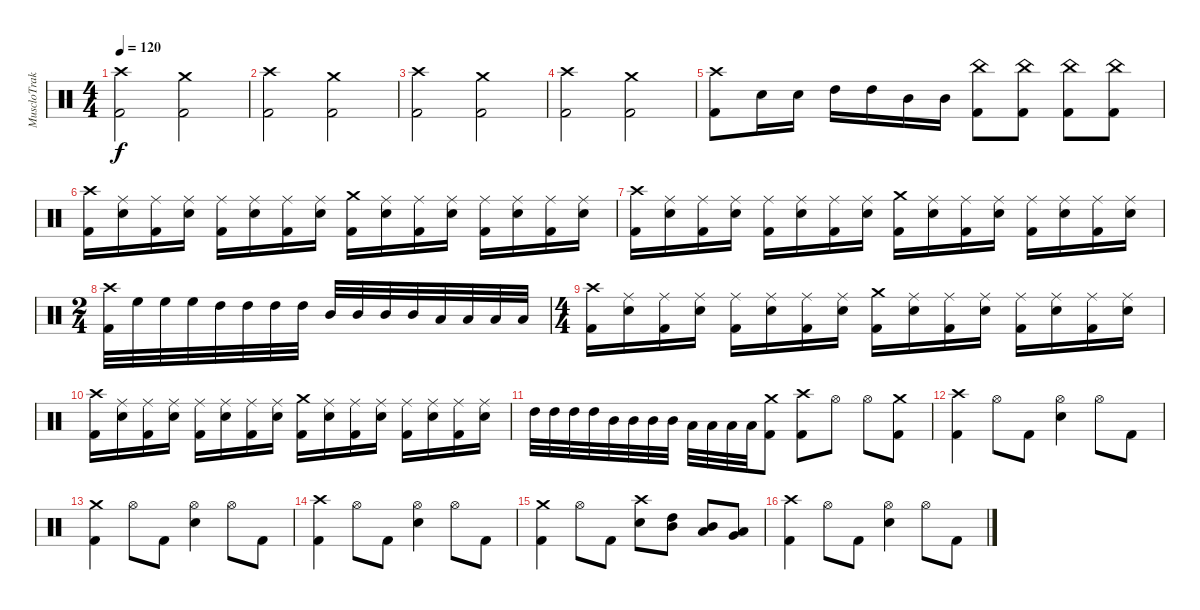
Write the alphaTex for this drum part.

\track ("MuscloTraktor" "MuscloTrak") {instrument percussion}
\staff {score}
\articulation defaults
\ts (4 4)
\tempo 120
\clef neutral
\ks c
("Kick (hit) 2" "Crash high (hit)").2{dy f} ("Kick (hit) 2" "Crash medium (hit)").2 |
("Kick (hit) 2" "Crash high (hit)").2 ("Kick (hit) 2" "Crash medium (hit)").2 |
("Kick (hit) 2" "Crash high (hit)").2 ("Kick (hit) 2" "Crash medium (hit)").2 |
("Kick (hit) 2" "Crash high (hit)").2 ("Kick (hit) 2" "Crash medium (hit)").2 |
("Kick (hit) 2" "Crash high (hit)").8 "Electric Snare (hit)".16 "Electric Snare (hit)".16 "High Tom (hit)".16 "High Tom (hit)".16 "Mid Tom (hit)".16 "Mid Tom (hit)".16 ("Kick (hit) 2" "China (hit)").8 ("Kick (hit) 2" "China (hit)").8 ("Kick (hit) 2" "China (hit)").8 ("Kick (hit) 2" "China (hit)").8 |
("Kick (hit) 2" "Crash high (hit)").16 ("Electric Snare (hit)" "Ride (middle)").16 ("Kick (hit) 2" "Ride (middle)").16 ("Electric Snare (hit)" "Ride (middle)").16 ("Kick (hit) 2" "Ride (middle)").16 ("Electric Snare (hit)" "Ride (middle)").16 ("Kick (hit) 2" "Ride (middle)").16 ("Electric Snare (hit)" "Ride (middle)").16 ("Kick (hit) 2" "Crash medium (hit)").16 ("Electric Snare (hit)" "Ride (middle)").16 ("Kick (hit) 2" "Ride (middle)").16 ("Electric Snare (hit)" "Ride (middle)").16 ("Kick (hit) 2" "Ride (middle)").16 ("Electric Snare (hit)" "Ride (middle)").16 ("Kick (hit) 2" "Ride (middle)").16 ("Electric Snare (hit)" "Ride (middle)").16 |
("Kick (hit) 2" "Crash high (hit)").16 ("Electric Snare (hit)" "Ride (middle)").16 ("Kick (hit) 2" "Ride (middle)").16 ("Electric Snare (hit)" "Ride (middle)").16 ("Kick (hit) 2" "Ride (middle)").16 ("Electric Snare (hit)" "Ride (middle)").16 ("Kick (hit) 2" "Ride (middle)").16 ("Electric Snare (hit)" "Ride (middle)").16 ("Kick (hit) 2" "Crash medium (hit)").16 ("Electric Snare (hit)" "Ride (middle)").16 ("Kick (hit) 2" "Ride (middle)").16 ("Electric Snare (hit)" "Ride (middle)").16 ("Kick (hit) 2" "Ride (middle)").16 ("Electric Snare (hit)" "Ride (middle)").16 ("Kick (hit) 2" "Ride (middle)").16 ("Electric Snare (hit)" "Ride (middle)").16 |
\ts (2 4)
("Kick (hit) 2" "Crash high (hit)").32 "High Floor Tom (hit)".32 "High Floor Tom (hit)".32 "High Floor Tom (hit)".32 "High Tom (hit)".32 "High Tom (hit)".32 "High Tom (hit)".32 "High Tom (hit)".32 "Mid Tom (hit)".32 "Mid Tom (hit)".32 "Mid Tom (hit)".32 "Mid Tom (hit)".32 "Low Tom (hit)".32 "Low Tom (hit)".32 "Low Tom (hit)".32 "Low Tom (hit)".32 |
\ts (4 4)
("Kick (hit) 2" "Crash high (hit)").16 ("Electric Snare (hit)" "Ride (middle)").16 ("Kick (hit) 2" "Ride (middle)").16 ("Electric Snare (hit)" "Ride (middle)").16 ("Kick (hit) 2" "Ride (middle)").16 ("Electric Snare (hit)" "Ride (middle)").16 ("Kick (hit) 2" "Ride (middle)").16 ("Electric Snare (hit)" "Ride (middle)").16 ("Kick (hit) 2" "Crash medium (hit)").16 ("Electric Snare (hit)" "Ride (middle)").16 ("Kick (hit) 2" "Ride (middle)").16 ("Electric Snare (hit)" "Ride (middle)").16 ("Kick (hit) 2" "Ride (middle)").16 ("Electric Snare (hit)" "Ride (middle)").16 ("Kick (hit) 2" "Ride (middle)").16 ("Electric Snare (hit)" "Ride (middle)").16 |
("Kick (hit) 2" "Crash high (hit)").16 ("Electric Snare (hit)" "Ride (middle)").16 ("Kick (hit) 2" "Ride (middle)").16 ("Electric Snare (hit)" "Ride (middle)").16 ("Kick (hit) 2" "Ride (middle)").16 ("Electric Snare (hit)" "Ride (middle)").16 ("Kick (hit) 2" "Ride (middle)").16 ("Electric Snare (hit)" "Ride (middle)").16 ("Kick (hit) 2" "Crash medium (hit)").16 ("Electric Snare (hit)" "Ride (middle)").16 ("Kick (hit) 2" "Ride (middle)").16 ("Electric Snare (hit)" "Ride (middle)").16 ("Kick (hit) 2" "Ride (middle)").16 ("Electric Snare (hit)" "Ride (middle)").16 ("Kick (hit) 2" "Ride (middle)").16 ("Electric Snare (hit)" "Ride (middle)").16 |
"High Tom (hit)".32 "High Tom (hit)".32 "High Tom (hit)".32 "High Tom (hit)".32 "Mid Tom (hit)".32 "Mid Tom (hit)".32 "Mid Tom (hit)".32 "Mid Tom (hit)".32 "Low Tom (hit)".32 "Low Tom (hit)".32 "Low Tom (hit)".32 "Low Tom (hit)".32 ("Kick (hit) 2" "Crash medium (hit)").8 ("Kick (hit) 2" "Crash high (hit)").8 "Hi-Hat (open)".8 "Hi-Hat (open)".8 ("Kick (hit) 2" "Crash medium (hit)").8 |
("Kick (hit) 2" "Crash high (hit)").4 "Hi-Hat (open)".8 "Kick (hit) 2".8 ("Electric Snare (hit)" "Hi-Hat (open)").4 "Hi-Hat (open)".8 "Kick (hit) 2".8 |
("Kick (hit) 2" "Crash medium (hit)").4 "Hi-Hat (open)".8 "Kick (hit) 2".8 ("Electric Snare (hit)" "Hi-Hat (open)").4 "Hi-Hat (open)".8 "Kick (hit) 2".8 |
("Kick (hit) 2" "Crash high (hit)").4 "Hi-Hat (open)".8 "Kick (hit) 2".8 ("Electric Snare (hit)" "Hi-Hat (open)").4 "Hi-Hat (open)".8 "Kick (hit) 2".8 |
("Kick (hit) 2" "Crash medium (hit)").4 "Hi-Hat (open)".8 "Kick (hit) 2".8 ("Electric Snare (hit)" "Crash high (hit)").8 ("Mid Tom (hit)" "High Tom (hit)").8 ("Low Tom (hit)" "Mid Tom (hit)").8 ("Very Low Tom (hit)" "Low Tom (hit)").8 |
("Kick (hit) 2" "Crash high (hit)").4 "Hi-Hat (open)".8 "Kick (hit) 2".8 ("Electric Snare (hit)" "Hi-Hat (open)").4 "Hi-Hat (open)".8 "Kick (hit) 2".8
